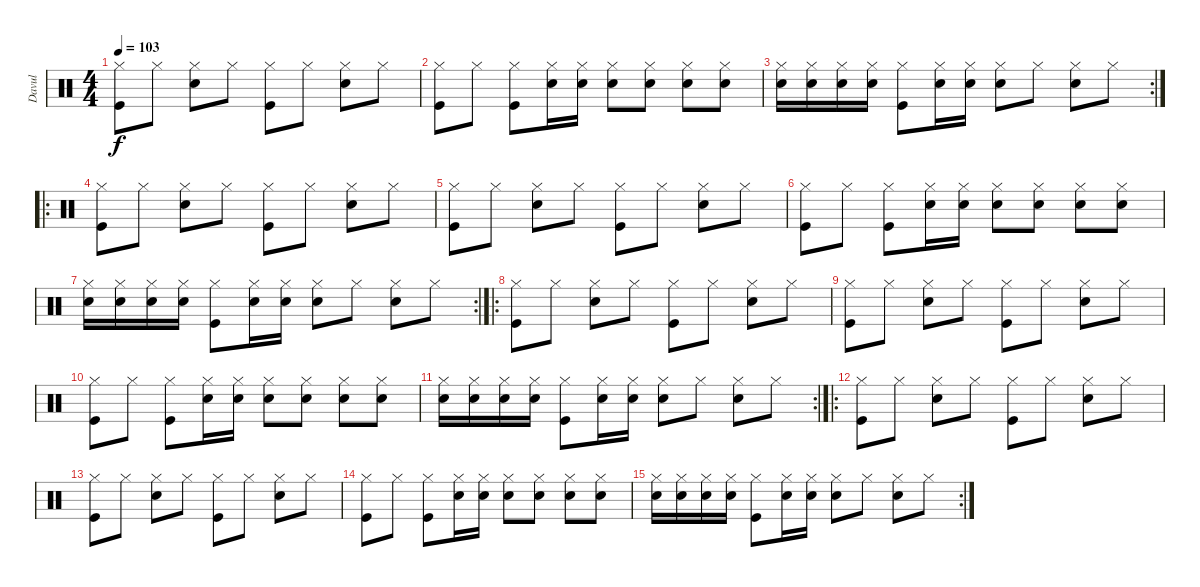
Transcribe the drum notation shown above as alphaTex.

\track ("Davul" "Davul") {instrument percussion}
\staff {score}
\articulation defaults
\ts (4 4)
\tempo 103
\clef neutral
\ks c
("Hi-Hat (closed)" "Kick (hit)").8{dy f} "Hi-Hat (closed)".8 ("Hi-Hat (closed)" "Electric Snare (hit)").8 "Hi-Hat (closed)".8 ("Hi-Hat (closed)" "Kick (hit)").8 "Hi-Hat (closed)".8 ("Hi-Hat (closed)" "Electric Snare (hit)").8 "Hi-Hat (closed)".8 |
("Hi-Hat (closed)" "Kick (hit)").8 "Hi-Hat (closed)".8 ("Hi-Hat (closed)" "Kick (hit)").8 ("Hi-Hat (closed)" "Electric Snare (hit)").16 ("Hi-Hat (closed)" "Electric Snare (hit)").16 ("Hi-Hat (closed)" "Electric Snare (hit)").8 ("Hi-Hat (closed)" "Electric Snare (hit)").8 ("Hi-Hat (closed)" "Electric Snare (hit)").8 ("Hi-Hat (closed)" "Electric Snare (hit)").8 |
\rc 2
("Hi-Hat (closed)" "Electric Snare (hit)").16 ("Hi-Hat (closed)" "Electric Snare (hit)").16 ("Hi-Hat (closed)" "Electric Snare (hit)").16 ("Hi-Hat (closed)" "Electric Snare (hit)").16 ("Hi-Hat (closed)" "Kick (hit)").8 ("Hi-Hat (closed)" "Electric Snare (hit)").16 ("Hi-Hat (closed)" "Electric Snare (hit)").16 ("Hi-Hat (closed)" "Electric Snare (hit)").8 "Hi-Hat (closed)".8 ("Hi-Hat (closed)" "Electric Snare (hit)").8 "Hi-Hat (closed)".8 |
\ro
("Hi-Hat (closed)" "Kick (hit)").8 "Hi-Hat (closed)".8 ("Hi-Hat (closed)" "Electric Snare (hit)").8 "Hi-Hat (closed)".8 ("Hi-Hat (closed)" "Kick (hit)").8 "Hi-Hat (closed)".8 ("Hi-Hat (closed)" "Electric Snare (hit)").8 "Hi-Hat (closed)".8 |
("Hi-Hat (closed)" "Kick (hit)").8 "Hi-Hat (closed)".8 ("Hi-Hat (closed)" "Electric Snare (hit)").8 "Hi-Hat (closed)".8 ("Hi-Hat (closed)" "Kick (hit)").8 "Hi-Hat (closed)".8 ("Hi-Hat (closed)" "Electric Snare (hit)").8 "Hi-Hat (closed)".8 |
("Hi-Hat (closed)" "Kick (hit)").8 "Hi-Hat (closed)".8 ("Hi-Hat (closed)" "Kick (hit)").8 ("Hi-Hat (closed)" "Electric Snare (hit)").16 ("Hi-Hat (closed)" "Electric Snare (hit)").16 ("Hi-Hat (closed)" "Electric Snare (hit)").8 ("Hi-Hat (closed)" "Electric Snare (hit)").8 ("Hi-Hat (closed)" "Electric Snare (hit)").8 ("Hi-Hat (closed)" "Electric Snare (hit)").8 |
\rc 2
("Hi-Hat (closed)" "Electric Snare (hit)").16 ("Hi-Hat (closed)" "Electric Snare (hit)").16 ("Hi-Hat (closed)" "Electric Snare (hit)").16 ("Hi-Hat (closed)" "Electric Snare (hit)").16 ("Hi-Hat (closed)" "Kick (hit)").8 ("Hi-Hat (closed)" "Electric Snare (hit)").16 ("Hi-Hat (closed)" "Electric Snare (hit)").16 ("Hi-Hat (closed)" "Electric Snare (hit)").8 "Hi-Hat (closed)".8 ("Hi-Hat (closed)" "Electric Snare (hit)").8 "Hi-Hat (closed)".8 |
\ro
("Hi-Hat (closed)" "Kick (hit)").8 "Hi-Hat (closed)".8 ("Hi-Hat (closed)" "Electric Snare (hit)").8 "Hi-Hat (closed)".8 ("Hi-Hat (closed)" "Kick (hit)").8 "Hi-Hat (closed)".8 ("Hi-Hat (closed)" "Electric Snare (hit)").8 "Hi-Hat (closed)".8 |
("Hi-Hat (closed)" "Kick (hit)").8 "Hi-Hat (closed)".8 ("Hi-Hat (closed)" "Electric Snare (hit)").8 "Hi-Hat (closed)".8 ("Hi-Hat (closed)" "Kick (hit)").8 "Hi-Hat (closed)".8 ("Hi-Hat (closed)" "Electric Snare (hit)").8 "Hi-Hat (closed)".8 |
("Hi-Hat (closed)" "Kick (hit)").8 "Hi-Hat (closed)".8 ("Hi-Hat (closed)" "Kick (hit)").8 ("Hi-Hat (closed)" "Electric Snare (hit)").16 ("Hi-Hat (closed)" "Electric Snare (hit)").16 ("Hi-Hat (closed)" "Electric Snare (hit)").8 ("Hi-Hat (closed)" "Electric Snare (hit)").8 ("Hi-Hat (closed)" "Electric Snare (hit)").8 ("Hi-Hat (closed)" "Electric Snare (hit)").8 |
\rc 2
("Hi-Hat (closed)" "Electric Snare (hit)").16 ("Hi-Hat (closed)" "Electric Snare (hit)").16 ("Hi-Hat (closed)" "Electric Snare (hit)").16 ("Hi-Hat (closed)" "Electric Snare (hit)").16 ("Hi-Hat (closed)" "Kick (hit)").8 ("Hi-Hat (closed)" "Electric Snare (hit)").16 ("Hi-Hat (closed)" "Electric Snare (hit)").16 ("Hi-Hat (closed)" "Electric Snare (hit)").8 "Hi-Hat (closed)".8 ("Hi-Hat (closed)" "Electric Snare (hit)").8 "Hi-Hat (closed)".8 |
\ro
("Hi-Hat (closed)" "Kick (hit)").8 "Hi-Hat (closed)".8 ("Hi-Hat (closed)" "Electric Snare (hit)").8 "Hi-Hat (closed)".8 ("Hi-Hat (closed)" "Kick (hit)").8 "Hi-Hat (closed)".8 ("Hi-Hat (closed)" "Electric Snare (hit)").8 "Hi-Hat (closed)".8 |
("Hi-Hat (closed)" "Kick (hit)").8 "Hi-Hat (closed)".8 ("Hi-Hat (closed)" "Electric Snare (hit)").8 "Hi-Hat (closed)".8 ("Hi-Hat (closed)" "Kick (hit)").8 "Hi-Hat (closed)".8 ("Hi-Hat (closed)" "Electric Snare (hit)").8 "Hi-Hat (closed)".8 |
("Hi-Hat (closed)" "Kick (hit)").8 "Hi-Hat (closed)".8 ("Hi-Hat (closed)" "Kick (hit)").8 ("Hi-Hat (closed)" "Electric Snare (hit)").16 ("Hi-Hat (closed)" "Electric Snare (hit)").16 ("Hi-Hat (closed)" "Electric Snare (hit)").8 ("Hi-Hat (closed)" "Electric Snare (hit)").8 ("Hi-Hat (closed)" "Electric Snare (hit)").8 ("Hi-Hat (closed)" "Electric Snare (hit)").8 |
\rc 2
("Hi-Hat (closed)" "Electric Snare (hit)").16 ("Hi-Hat (closed)" "Electric Snare (hit)").16 ("Hi-Hat (closed)" "Electric Snare (hit)").16 ("Hi-Hat (closed)" "Electric Snare (hit)").16 ("Hi-Hat (closed)" "Kick (hit)").8 ("Hi-Hat (closed)" "Electric Snare (hit)").16 ("Hi-Hat (closed)" "Electric Snare (hit)").16 ("Hi-Hat (closed)" "Electric Snare (hit)").8 "Hi-Hat (closed)".8 ("Hi-Hat (closed)" "Electric Snare (hit)").8 "Hi-Hat (closed)".8
